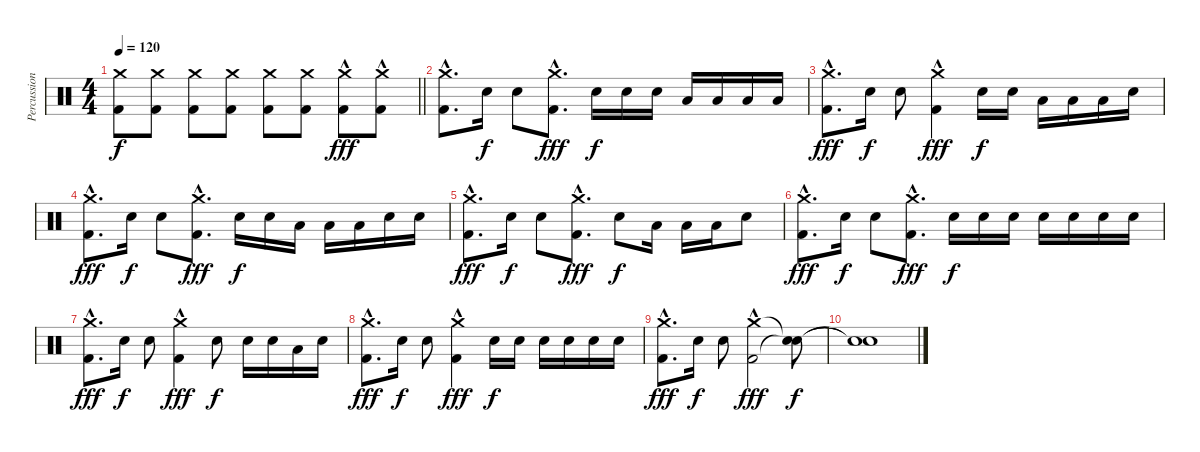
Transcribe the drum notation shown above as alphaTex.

\track ("Percussion" "Percussion") {instrument percussion}
\staff {score}
\articulation defaults
\ts (4 4)
\tempo 120
\clef neutral
\barLineRight lightlight
\ks c
("Crash medium (hit)" "Kick (hit) 2").8{dy f} ("Crash medium (hit)" "Kick (hit) 2").8 ("Crash medium (hit)" "Kick (hit) 2").8 ("Crash medium (hit)" "Kick (hit) 2").8 ("Crash medium (hit)" "Kick (hit) 2").8 ("Crash medium (hit)" "Kick (hit) 2").8 ("Crash medium (hit)"{hac} "Kick (hit) 2").8{dy fff} ("Crash medium (hit)"{hac} "Kick (hit) 2").8 |
("Crash medium (hit)"{hac} "Kick (hit) 2").8{d} "Snare (hit) 2".16{dy f} "Snare (hit) 2".8 ("Crash medium (hit)"{hac} "Kick (hit) 2").8{d dy fff} "Snare (hit) 2".16{dy f} "Snare (hit) 2".16 "Snare (hit) 2".16 "Low Tom (hit)".16 "Low Tom (hit)".16 "Low Floor Tom (hit)".16 "Low Floor Tom (hit)".16 |
("Crash medium (hit)"{hac} "Kick (hit) 2").8{d dy fff} "Snare (hit) 2".16{dy f} "Snare (hit) 2".8 ("Crash medium (hit)"{hac} "Kick (hit) 2").4{dy fff} "Snare (hit) 2".16{dy f} "Snare (hit) 2".16 "Low Floor Tom (hit)".16 "Low Floor Tom (hit)".16 "Low Floor Tom (hit)".16 "Snare (hit) 2".16 |
("Crash medium (hit)"{hac} "Kick (hit) 2").8{d dy fff} "Snare (hit) 2".16{dy f} "Snare (hit) 2".8 ("Crash medium (hit)"{hac} "Kick (hit) 2").8{d dy fff} "Snare (hit) 2".16{dy f} "Snare (hit) 2".16 "Low Floor Tom (hit)".16 "Low Floor Tom (hit)".16 "Low Floor Tom (hit)".16 "Snare (hit) 2".16 "Snare (hit) 2".16 |
("Crash medium (hit)"{hac} "Kick (hit) 2").8{d dy fff} "Snare (hit) 2".16{dy f} "Snare (hit) 2".8 ("Crash medium (hit)"{hac} "Kick (hit) 2").8{d dy fff} "Snare (hit) 2".8{dy f} "Low Floor Tom (hit)".16 "Low Floor Tom (hit)".16 "Low Floor Tom (hit)".16 "Snare (hit) 2".8 |
("Crash medium (hit)"{hac} "Kick (hit) 2").8{d dy fff} "Snare (hit) 2".16{dy f} "Snare (hit) 2".8 ("Crash medium (hit)"{hac} "Kick (hit) 2").8{d dy fff} "Snare (hit) 2".16{dy f} "Snare (hit) 2".16 "Snare (hit) 2".16 "Snare (hit) 2".16 "Snare (hit) 2".16 "Snare (hit) 2".16 "Snare (hit) 2".16 |
("Crash medium (hit)"{hac} "Kick (hit) 2").8{d dy fff} "Snare (hit) 2".16{dy f} "Snare (hit) 2".8 ("Crash medium (hit)"{hac} "Kick (hit) 2").4{dy fff} "Snare (hit) 2".8{dy f} "Snare (hit) 2".16 "Snare (hit) 2".16 "Low Floor Tom (hit)".16 "Snare (hit) 2".16 |
("Crash medium (hit)"{hac} "Kick (hit) 2").8{d dy fff} "Snare (hit) 2".16{dy f} "Snare (hit) 2".8 ("Crash medium (hit)"{hac} "Kick (hit) 2").4{dy fff} "Snare (hit) 2".16{dy f} "Snare (hit) 2".16 "Snare (hit) 2".16 "Snare (hit) 2".16 "Snare (hit) 2".16 "Snare (hit) 2".16 |
("Crash medium (hit)"{hac} "Kick (hit) 2").8{d dy fff} "Snare (hit) 2".16{dy f} "Snare (hit) 2".8 ("Crash medium (hit)"{hac} "Kick (hit) 2").2{dy fff} ("Snare (hit)"{t} "Snare (hit)"{t}).8{dy f} |
("Snare (hit)"{t} "Snare (hit)"{t}).1
